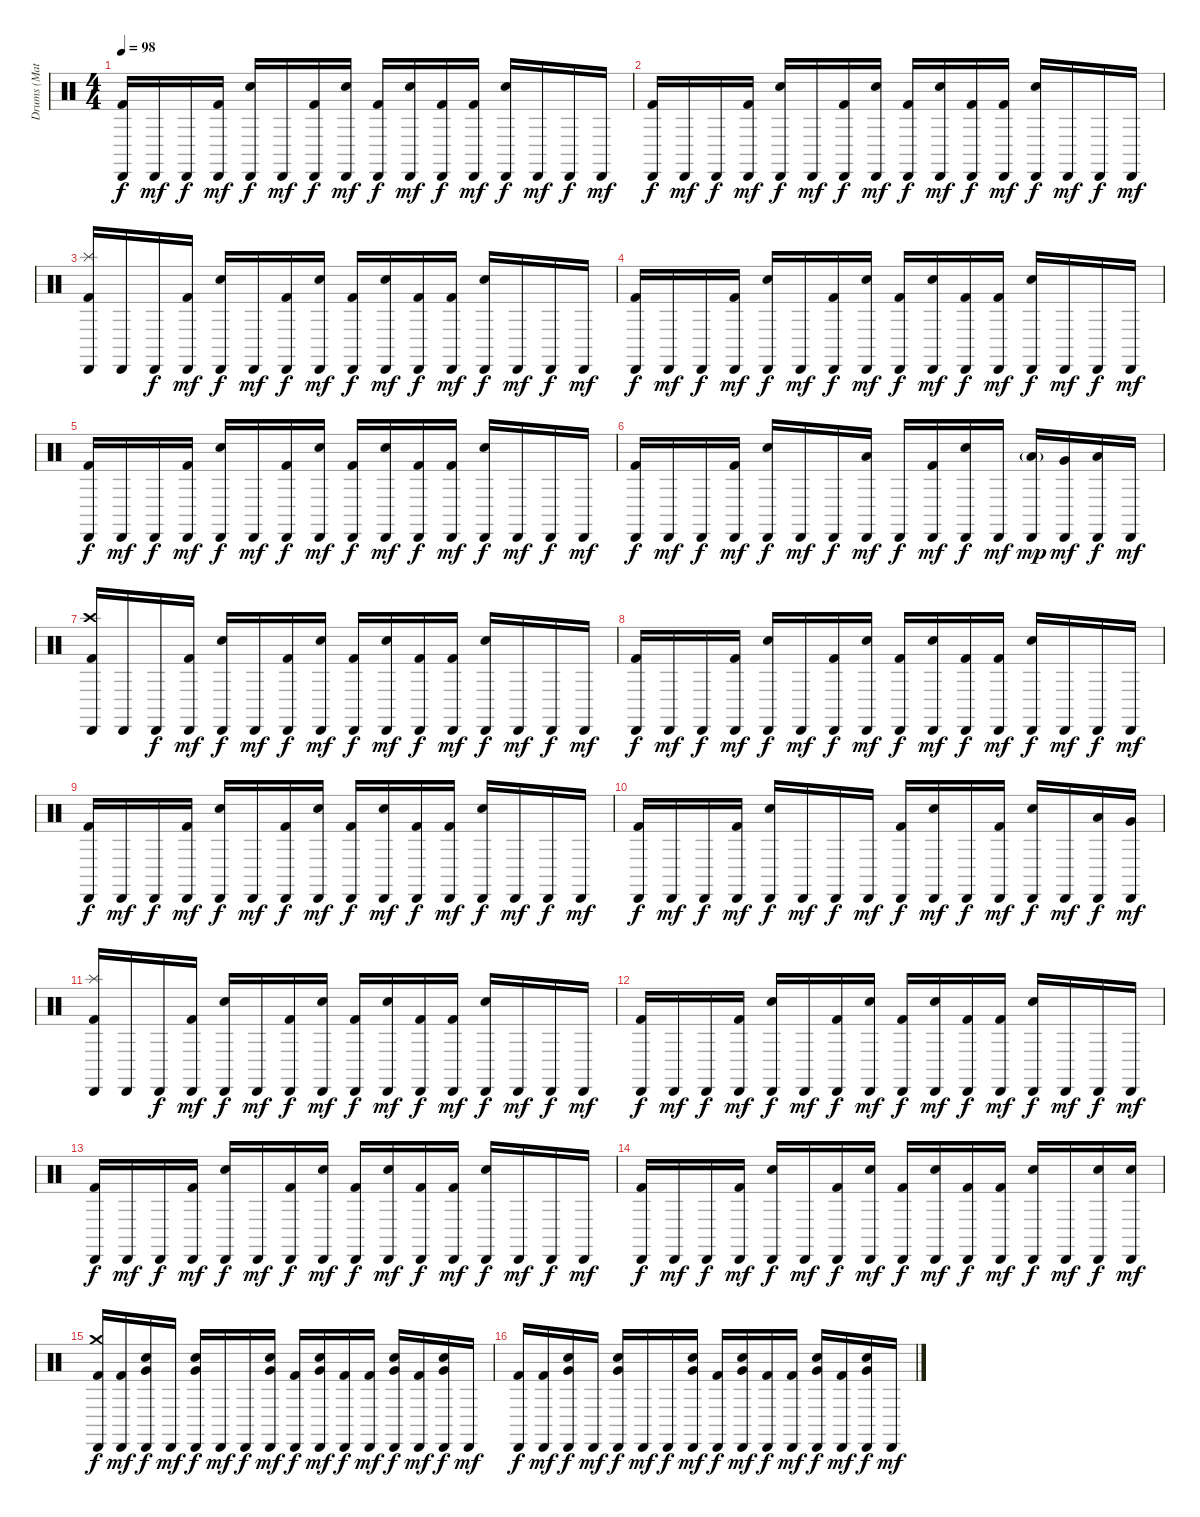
\track ("Drums (Matt Sorum)" "Drums (Mat") {instrument percussion}
\staff {score}
\articulation defaults
\ts (4 4)
\tempo 98
\clef neutral
\ks c
("Cabasa (hit)" "Kick (hit) 2").16{dy f} "Cabasa (hit)".16{dy mf} "Cabasa (hit)".16{dy f} ("Cabasa (hit)" "Kick (hit) 2").16{dy mf} ("Cabasa (hit)" "Electric Snare (hit)").16{dy f} "Cabasa (hit)".16{dy mf} ("Cabasa (hit)" "Kick (hit) 2").16{dy f} ("Cabasa (hit)" "Electric Snare (hit)").16{dy mf} ("Cabasa (hit)" "Kick (hit) 2").16{dy f} ("Cabasa (hit)" "Electric Snare (hit)").16{dy mf} ("Cabasa (hit)" "Kick (hit) 2").16{dy f} ("Cabasa (hit)" "Kick (hit) 2").16{dy mf} ("Cabasa (hit)" "Electric Snare (hit)").16{dy f} "Cabasa (hit)".16{dy mf} "Cabasa (hit)".16{dy f} "Cabasa (hit)".16{dy mf} |
("Cabasa (hit)" "Kick (hit) 2").16{dy f} "Cabasa (hit)".16{dy mf} "Cabasa (hit)".16{dy f} ("Cabasa (hit)" "Kick (hit) 2").16{dy mf} ("Cabasa (hit)" "Electric Snare (hit)").16{dy f} "Cabasa (hit)".16{dy mf} ("Cabasa (hit)" "Kick (hit) 2").16{dy f} ("Cabasa (hit)" "Electric Snare (hit)").16{dy mf} ("Cabasa (hit)" "Kick (hit) 2").16{dy f} ("Cabasa (hit)" "Electric Snare (hit)").16{dy mf} ("Cabasa (hit)" "Kick (hit) 2").16{dy f} ("Cabasa (hit)" "Kick (hit) 2").16{dy mf} ("Cabasa (hit)" "Electric Snare (hit)").16{dy f} "Cabasa (hit)".16{dy mf} "Cabasa (hit)".16{dy f} "Cabasa (hit)".16{dy mf} |
("Cabasa (hit)" "Splash (hit)" "Kick (hit) 2").16 "Cabasa (hit)".16 "Cabasa (hit)".16{dy f} ("Cabasa (hit)" "Kick (hit) 2").16{dy mf} ("Cabasa (hit)" "Electric Snare (hit)").16{dy f} "Cabasa (hit)".16{dy mf} ("Cabasa (hit)" "Kick (hit) 2").16{dy f} ("Cabasa (hit)" "Electric Snare (hit)").16{dy mf} ("Cabasa (hit)" "Kick (hit) 2").16{dy f} ("Cabasa (hit)" "Electric Snare (hit)").16{dy mf} ("Cabasa (hit)" "Kick (hit) 2").16{dy f} ("Cabasa (hit)" "Kick (hit) 2").16{dy mf} ("Cabasa (hit)" "Electric Snare (hit)").16{dy f} "Cabasa (hit)".16{dy mf} "Cabasa (hit)".16{dy f} "Cabasa (hit)".16{dy mf} |
("Cabasa (hit)" "Kick (hit) 2").16{dy f} "Cabasa (hit)".16{dy mf} "Cabasa (hit)".16{dy f} ("Cabasa (hit)" "Kick (hit) 2").16{dy mf} ("Cabasa (hit)" "Electric Snare (hit)").16{dy f} "Cabasa (hit)".16{dy mf} ("Cabasa (hit)" "Kick (hit) 2").16{dy f} ("Cabasa (hit)" "Electric Snare (hit)").16{dy mf} ("Cabasa (hit)" "Kick (hit) 2").16{dy f} ("Cabasa (hit)" "Electric Snare (hit)").16{dy mf} ("Cabasa (hit)" "Kick (hit) 2").16{dy f} ("Cabasa (hit)" "Kick (hit) 2").16{dy mf} ("Cabasa (hit)" "Electric Snare (hit)").16{dy f} "Cabasa (hit)".16{dy mf} "Cabasa (hit)".16{dy f} "Cabasa (hit)".16{dy mf} |
("Cabasa (hit)" "Kick (hit) 2").16{dy f} "Cabasa (hit)".16{dy mf} "Cabasa (hit)".16{dy f} ("Cabasa (hit)" "Kick (hit) 2").16{dy mf} ("Cabasa (hit)" "Electric Snare (hit)").16{dy f} "Cabasa (hit)".16{dy mf} ("Cabasa (hit)" "Kick (hit) 2").16{dy f} ("Cabasa (hit)" "Electric Snare (hit)").16{dy mf} ("Cabasa (hit)" "Kick (hit) 2").16{dy f} ("Cabasa (hit)" "Electric Snare (hit)").16{dy mf} ("Cabasa (hit)" "Kick (hit) 2").16{dy f} ("Cabasa (hit)" "Kick (hit) 2").16{dy mf} ("Cabasa (hit)" "Electric Snare (hit)").16{dy f} "Cabasa (hit)".16{dy mf} "Cabasa (hit)".16{dy f} "Cabasa (hit)".16{dy mf} |
("Cabasa (hit)" "Kick (hit) 2").16{dy f} "Cabasa (hit)".16{dy mf} "Cabasa (hit)".16{dy f} ("Cabasa (hit)" "Kick (hit) 2").16{dy mf} ("Cabasa (hit)" "Electric Snare (hit)").16{dy f} "Cabasa (hit)".16{dy mf} "Cabasa (hit)".16{dy f} ("Cabasa (hit)" "Low Tom (hit)").16{dy mf} "Cabasa (hit)".16{dy f} ("Cabasa (hit)" "Kick (hit) 2").16{dy mf} ("Cabasa (hit)" "Electric Snare (hit)").16{dy f} "Cabasa (hit)".16{dy mf} ("Cabasa (hit)" "Low Tom (hit)"{g}).16{dy mp} ("Cabasa (hit)" "Very Low Tom (hit)").16{dy mf} ("Cabasa (hit)" "Low Floor Tom (hit)").16{dy f} "Cabasa (hit)".16{dy mf} |
("Cabasa (hit)" "Crash high (hit)" "Kick (hit) 2").16 "Cabasa (hit)".16 "Cabasa (hit)".16{dy f} ("Cabasa (hit)" "Kick (hit) 2").16{dy mf} ("Cabasa (hit)" "Electric Snare (hit)").16{dy f} "Cabasa (hit)".16{dy mf} ("Cabasa (hit)" "Kick (hit) 2").16{dy f} ("Cabasa (hit)" "Electric Snare (hit)").16{dy mf} ("Cabasa (hit)" "Kick (hit) 2").16{dy f} ("Cabasa (hit)" "Electric Snare (hit)").16{dy mf} ("Cabasa (hit)" "Kick (hit) 2").16{dy f} ("Cabasa (hit)" "Kick (hit) 2").16{dy mf} ("Cabasa (hit)" "Electric Snare (hit)").16{dy f} "Cabasa (hit)".16{dy mf} "Cabasa (hit)".16{dy f} "Cabasa (hit)".16{dy mf} |
("Cabasa (hit)" "Kick (hit) 2").16{dy f} "Cabasa (hit)".16{dy mf} "Cabasa (hit)".16{dy f} ("Cabasa (hit)" "Kick (hit) 2").16{dy mf} ("Cabasa (hit)" "Electric Snare (hit)").16{dy f} "Cabasa (hit)".16{dy mf} ("Cabasa (hit)" "Kick (hit) 2").16{dy f} ("Cabasa (hit)" "Electric Snare (hit)").16{dy mf} ("Cabasa (hit)" "Kick (hit) 2").16{dy f} ("Cabasa (hit)" "Electric Snare (hit)").16{dy mf} ("Cabasa (hit)" "Kick (hit) 2").16{dy f} ("Cabasa (hit)" "Kick (hit) 2").16{dy mf} ("Cabasa (hit)" "Electric Snare (hit)").16{dy f} "Cabasa (hit)".16{dy mf} "Cabasa (hit)".16{dy f} "Cabasa (hit)".16{dy mf} |
("Cabasa (hit)" "Kick (hit) 2").16{dy f} "Cabasa (hit)".16{dy mf} "Cabasa (hit)".16{dy f} ("Cabasa (hit)" "Kick (hit) 2").16{dy mf} ("Cabasa (hit)" "Electric Snare (hit)").16{dy f} "Cabasa (hit)".16{dy mf} ("Cabasa (hit)" "Kick (hit) 2").16{dy f} ("Cabasa (hit)" "Electric Snare (hit)").16{dy mf} ("Cabasa (hit)" "Kick (hit) 2").16{dy f} ("Cabasa (hit)" "Electric Snare (hit)").16{dy mf} ("Cabasa (hit)" "Kick (hit) 2").16{dy f} ("Cabasa (hit)" "Kick (hit) 2").16{dy mf} ("Cabasa (hit)" "Electric Snare (hit)").16{dy f} "Cabasa (hit)".16{dy mf} "Cabasa (hit)".16{dy f} "Cabasa (hit)".16{dy mf} |
("Cabasa (hit)" "Kick (hit) 2").16{dy f} "Cabasa (hit)".16{dy mf} "Cabasa (hit)".16{dy f} ("Cabasa (hit)" "Kick (hit) 2").16{dy mf} ("Cabasa (hit)" "Electric Snare (hit)").16{dy f} "Cabasa (hit)".16{dy mf} "Cabasa (hit)".16{dy f} "Cabasa (hit)".16{dy mf} ("Cabasa (hit)" "Kick (hit) 2").16{dy f} ("Cabasa (hit)" "Electric Snare (hit)").16{dy mf} "Cabasa (hit)".16{dy f} ("Cabasa (hit)" "Kick (hit) 2").16{dy mf} ("Cabasa (hit)" "Electric Snare (hit)").16{dy f} "Cabasa (hit)".16{dy mf} ("Cabasa (hit)" "Low Tom (hit)").16{dy f} ("Cabasa (hit)" "Very Low Tom (hit)").16{dy mf} |
("Cabasa (hit)" "Splash (hit)" "Kick (hit) 2").16 "Cabasa (hit)".16 "Cabasa (hit)".16{dy f} ("Cabasa (hit)" "Kick (hit) 2").16{dy mf} ("Cabasa (hit)" "Electric Snare (hit)").16{dy f} "Cabasa (hit)".16{dy mf} ("Cabasa (hit)" "Kick (hit) 2").16{dy f} ("Cabasa (hit)" "Electric Snare (hit)").16{dy mf} ("Cabasa (hit)" "Kick (hit) 2").16{dy f} ("Cabasa (hit)" "Electric Snare (hit)").16{dy mf} ("Cabasa (hit)" "Kick (hit) 2").16{dy f} ("Cabasa (hit)" "Kick (hit) 2").16{dy mf} ("Cabasa (hit)" "Electric Snare (hit)").16{dy f} "Cabasa (hit)".16{dy mf} "Cabasa (hit)".16{dy f} "Cabasa (hit)".16{dy mf} |
("Cabasa (hit)" "Kick (hit) 2").16{dy f} "Cabasa (hit)".16{dy mf} "Cabasa (hit)".16{dy f} ("Cabasa (hit)" "Kick (hit) 2").16{dy mf} ("Cabasa (hit)" "Electric Snare (hit)").16{dy f} "Cabasa (hit)".16{dy mf} ("Cabasa (hit)" "Kick (hit) 2").16{dy f} ("Cabasa (hit)" "Electric Snare (hit)").16{dy mf} ("Cabasa (hit)" "Kick (hit) 2").16{dy f} ("Cabasa (hit)" "Electric Snare (hit)").16{dy mf} ("Cabasa (hit)" "Kick (hit) 2").16{dy f} ("Cabasa (hit)" "Kick (hit) 2").16{dy mf} ("Cabasa (hit)" "Electric Snare (hit)").16{dy f} "Cabasa (hit)".16{dy mf} "Cabasa (hit)".16{dy f} "Cabasa (hit)".16{dy mf} |
("Cabasa (hit)" "Kick (hit) 2").16{dy f} "Cabasa (hit)".16{dy mf} "Cabasa (hit)".16{dy f} ("Cabasa (hit)" "Kick (hit) 2").16{dy mf} ("Cabasa (hit)" "Electric Snare (hit)").16{dy f} "Cabasa (hit)".16{dy mf} ("Cabasa (hit)" "Kick (hit) 2").16{dy f} ("Cabasa (hit)" "Electric Snare (hit)").16{dy mf} ("Cabasa (hit)" "Kick (hit) 2").16{dy f} ("Cabasa (hit)" "Electric Snare (hit)").16{dy mf} ("Cabasa (hit)" "Kick (hit) 2").16{dy f} ("Cabasa (hit)" "Kick (hit) 2").16{dy mf} ("Cabasa (hit)" "Electric Snare (hit)").16{dy f} "Cabasa (hit)".16{dy mf} "Cabasa (hit)".16{dy f} "Cabasa (hit)".16{dy mf} |
("Cabasa (hit)" "Kick (hit) 2").16{dy f} "Cabasa (hit)".16{dy mf} "Cabasa (hit)".16{dy f} ("Cabasa (hit)" "Kick (hit) 2").16{dy mf} ("Cabasa (hit)" "Electric Snare (hit)").16{dy f} "Cabasa (hit)".16{dy mf} ("Cabasa (hit)" "Kick (hit) 2").16{dy f} ("Cabasa (hit)" "Electric Snare (hit)").16{dy mf} ("Cabasa (hit)" "Kick (hit) 2").16{dy f} ("Cabasa (hit)" "Electric Snare (hit)").16{dy mf} ("Cabasa (hit)" "Kick (hit) 2").16{dy f} ("Cabasa (hit)" "Kick (hit) 2").16{dy mf} ("Cabasa (hit)" "Electric Snare (hit)").16{dy f} "Cabasa (hit)".16{dy mf} ("Cabasa (hit)" "Electric Snare (hit)").16{dy f} ("Cabasa (hit)" "Electric Snare (hit)").16{dy mf} |
("Cabasa (hit)" "Crash medium (hit)" "Kick (hit) 2").16{dy f} ("Cabasa (hit)" "Kick (hit) 2").16{dy mf} ("Cabasa (hit)" "Very Low Tom (hit)" "Electric Snare (hit)").16{dy f} "Cabasa (hit)".16{dy mf} ("Cabasa (hit)" "Very Low Tom (hit)" "Electric Snare (hit)").16{dy f} "Cabasa (hit)".16{dy mf} "Cabasa (hit)".16{dy f} ("Cabasa (hit)" "Very Low Tom (hit)" "Electric Snare (hit)").16{dy mf} ("Cabasa (hit)" "Kick (hit) 2").16{dy f} ("Cabasa (hit)" "Very Low Tom (hit)" "Electric Snare (hit)").16{dy mf} ("Cabasa (hit)" "Kick (hit) 2").16{dy f} ("Cabasa (hit)" "Kick (hit) 2").16{dy mf} ("Cabasa (hit)" "Very Low Tom (hit)" "Electric Snare (hit)").16{dy f} ("Cabasa (hit)" "Kick (hit) 2").16{dy mf} ("Cabasa (hit)" "Very Low Tom (hit)" "Electric Snare (hit)").16{dy f} "Cabasa (hit)".16{dy mf} |
("Cabasa (hit)" "Kick (hit) 2").16{dy f} ("Cabasa (hit)" "Kick (hit) 2").16{dy mf} ("Cabasa (hit)" "Very Low Tom (hit)" "Electric Snare (hit)").16{dy f} "Cabasa (hit)".16{dy mf} ("Cabasa (hit)" "Very Low Tom (hit)" "Electric Snare (hit)").16{dy f} "Cabasa (hit)".16{dy mf} "Cabasa (hit)".16{dy f} ("Cabasa (hit)" "Very Low Tom (hit)" "Electric Snare (hit)").16{dy mf} ("Cabasa (hit)" "Kick (hit) 2").16{dy f} ("Cabasa (hit)" "Very Low Tom (hit)" "Electric Snare (hit)").16{dy mf} ("Cabasa (hit)" "Kick (hit) 2").16{dy f} ("Cabasa (hit)" "Kick (hit) 2").16{dy mf} ("Cabasa (hit)" "Very Low Tom (hit)" "Electric Snare (hit)").16{dy f} ("Cabasa (hit)" "Kick (hit) 2").16{dy mf} ("Cabasa (hit)" "Very Low Tom (hit)" "Electric Snare (hit)").16{dy f} "Cabasa (hit)".16{dy mf}
